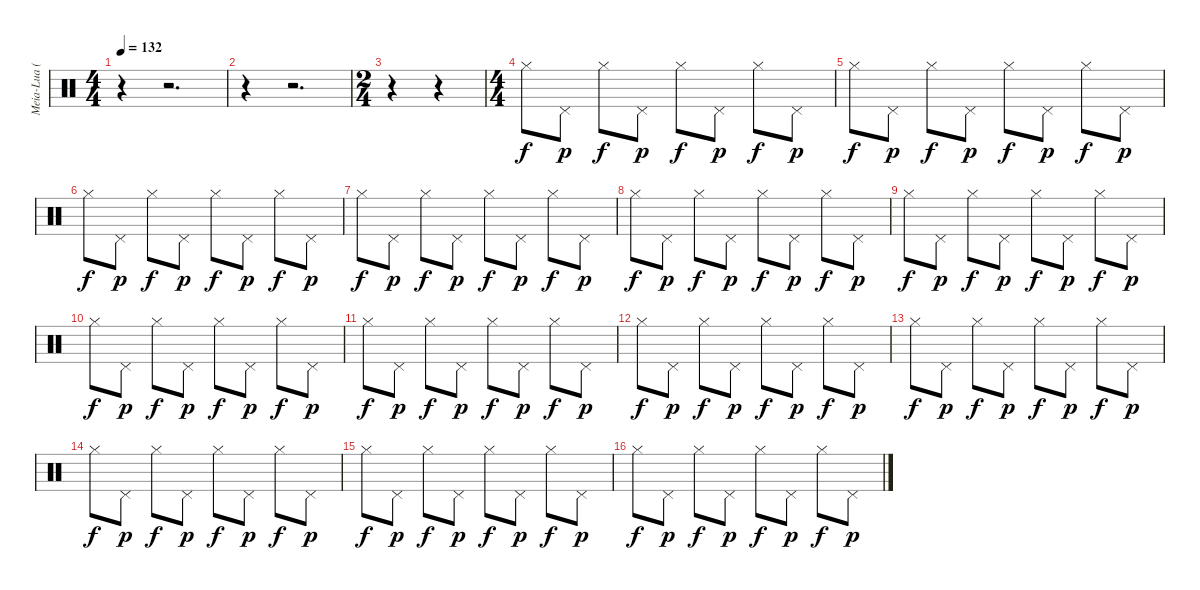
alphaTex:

\track ("Meia-Lua (hehe)" "Meia-Lua (") {instrument percussion}
\staff {score}
\articulation defaults
\ts (4 4)
\tempo 132
\clef neutral
\ks c
r.4{dy f} r.2{d} |
r.4 r.2{d} |
\ts (2 4)
r.4 r.4 |
\ts (4 4)
"Hi-Hat (closed)".8 "Pedal Hi-Hat (hit)".8{dy p} "Hi-Hat (closed)".8{dy f} "Pedal Hi-Hat (hit)".8{dy p} "Hi-Hat (closed)".8{dy f} "Pedal Hi-Hat (hit)".8{dy p} "Hi-Hat (closed)".8{dy f} "Pedal Hi-Hat (hit)".8{dy p} |
"Hi-Hat (closed)".8{dy f} "Pedal Hi-Hat (hit)".8{dy p} "Hi-Hat (closed)".8{dy f} "Pedal Hi-Hat (hit)".8{dy p} "Hi-Hat (closed)".8{dy f} "Pedal Hi-Hat (hit)".8{dy p} "Hi-Hat (closed)".8{dy f} "Pedal Hi-Hat (hit)".8{dy p} |
"Hi-Hat (closed)".8{dy f} "Pedal Hi-Hat (hit)".8{dy p} "Hi-Hat (closed)".8{dy f} "Pedal Hi-Hat (hit)".8{dy p} "Hi-Hat (closed)".8{dy f} "Pedal Hi-Hat (hit)".8{dy p} "Hi-Hat (closed)".8{dy f} "Pedal Hi-Hat (hit)".8{dy p} |
"Hi-Hat (closed)".8{dy f} "Pedal Hi-Hat (hit)".8{dy p} "Hi-Hat (closed)".8{dy f} "Pedal Hi-Hat (hit)".8{dy p} "Hi-Hat (closed)".8{dy f} "Pedal Hi-Hat (hit)".8{dy p} "Hi-Hat (closed)".8{dy f} "Pedal Hi-Hat (hit)".8{dy p} |
"Hi-Hat (closed)".8{dy f} "Pedal Hi-Hat (hit)".8{dy p} "Hi-Hat (closed)".8{dy f} "Pedal Hi-Hat (hit)".8{dy p} "Hi-Hat (closed)".8{dy f} "Pedal Hi-Hat (hit)".8{dy p} "Hi-Hat (closed)".8{dy f} "Pedal Hi-Hat (hit)".8{dy p} |
"Hi-Hat (closed)".8{dy f} "Pedal Hi-Hat (hit)".8{dy p} "Hi-Hat (closed)".8{dy f} "Pedal Hi-Hat (hit)".8{dy p} "Hi-Hat (closed)".8{dy f} "Pedal Hi-Hat (hit)".8{dy p} "Hi-Hat (closed)".8{dy f} "Pedal Hi-Hat (hit)".8{dy p} |
"Hi-Hat (closed)".8{dy f} "Pedal Hi-Hat (hit)".8{dy p} "Hi-Hat (closed)".8{dy f} "Pedal Hi-Hat (hit)".8{dy p} "Hi-Hat (closed)".8{dy f} "Pedal Hi-Hat (hit)".8{dy p} "Hi-Hat (closed)".8{dy f} "Pedal Hi-Hat (hit)".8{dy p} |
"Hi-Hat (closed)".8{dy f} "Pedal Hi-Hat (hit)".8{dy p} "Hi-Hat (closed)".8{dy f} "Pedal Hi-Hat (hit)".8{dy p} "Hi-Hat (closed)".8{dy f} "Pedal Hi-Hat (hit)".8{dy p} "Hi-Hat (closed)".8{dy f} "Pedal Hi-Hat (hit)".8{dy p} |
"Hi-Hat (closed)".8{dy f} "Pedal Hi-Hat (hit)".8{dy p} "Hi-Hat (closed)".8{dy f} "Pedal Hi-Hat (hit)".8{dy p} "Hi-Hat (closed)".8{dy f} "Pedal Hi-Hat (hit)".8{dy p} "Hi-Hat (closed)".8{dy f} "Pedal Hi-Hat (hit)".8{dy p} |
"Hi-Hat (closed)".8{dy f} "Pedal Hi-Hat (hit)".8{dy p} "Hi-Hat (closed)".8{dy f} "Pedal Hi-Hat (hit)".8{dy p} "Hi-Hat (closed)".8{dy f} "Pedal Hi-Hat (hit)".8{dy p} "Hi-Hat (closed)".8{dy f} "Pedal Hi-Hat (hit)".8{dy p} |
"Hi-Hat (closed)".8{dy f} "Pedal Hi-Hat (hit)".8{dy p} "Hi-Hat (closed)".8{dy f} "Pedal Hi-Hat (hit)".8{dy p} "Hi-Hat (closed)".8{dy f} "Pedal Hi-Hat (hit)".8{dy p} "Hi-Hat (closed)".8{dy f} "Pedal Hi-Hat (hit)".8{dy p} |
"Hi-Hat (closed)".8{dy f} "Pedal Hi-Hat (hit)".8{dy p} "Hi-Hat (closed)".8{dy f} "Pedal Hi-Hat (hit)".8{dy p} "Hi-Hat (closed)".8{dy f} "Pedal Hi-Hat (hit)".8{dy p} "Hi-Hat (closed)".8{dy f} "Pedal Hi-Hat (hit)".8{dy p} |
"Hi-Hat (closed)".8{dy f} "Pedal Hi-Hat (hit)".8{dy p} "Hi-Hat (closed)".8{dy f} "Pedal Hi-Hat (hit)".8{dy p} "Hi-Hat (closed)".8{dy f} "Pedal Hi-Hat (hit)".8{dy p} "Hi-Hat (closed)".8{dy f} "Pedal Hi-Hat (hit)".8{dy p}
